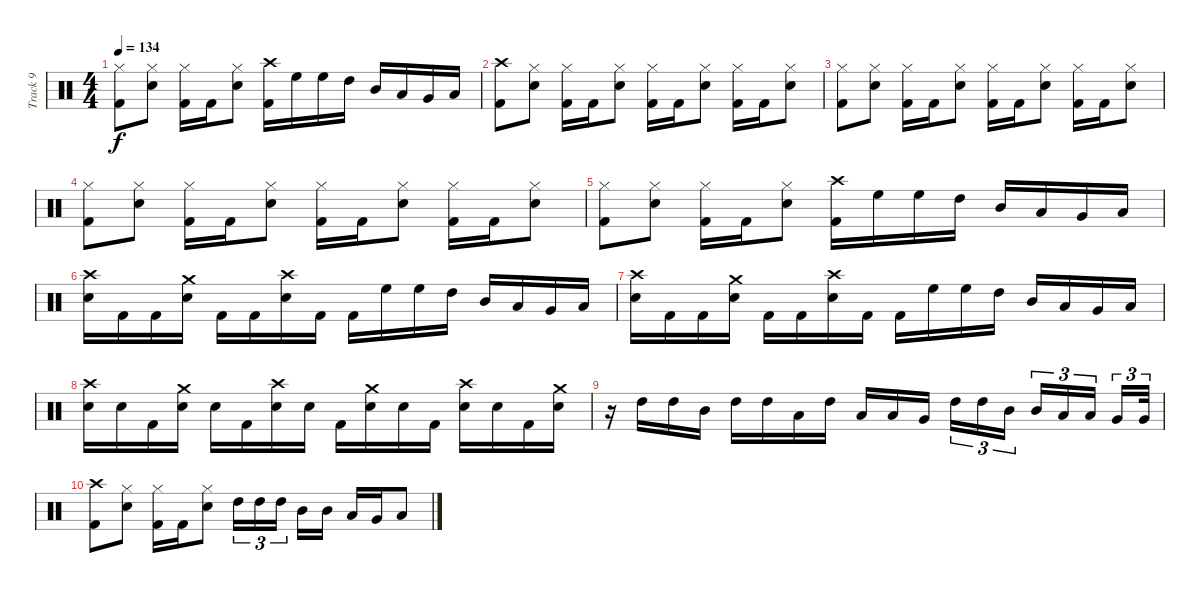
\track ("Track 9" "Track 9") {instrument percussion}
\staff {score}
\articulation defaults
\ts (4 4)
\tempo 134
\clef neutral
\ks c
("Hi-Hat (closed)" "Kick (hit) 2").8{dy f} ("Hi-Hat (closed)" "Snare (hit) 2").8 ("Hi-Hat (closed)" "Kick (hit) 2").16 "Kick (hit) 2".16 ("Hi-Hat (closed)" "Snare (hit) 2").8 ("Crash high (hit)" "Kick (hit) 2").16 "High Floor Tom (hit)".16 "High Floor Tom (hit)".16 "High Tom (hit)".16 "Mid Tom (hit)".16 "Low Tom (hit)".16 "Very Low Tom (hit)".16 "Low Floor Tom (hit)".16 |
("Crash high (hit)" "Kick (hit) 2").8 ("Hi-Hat (closed)" "Snare (hit) 2").8 ("Hi-Hat (closed)" "Kick (hit) 2").16 "Kick (hit) 2".16 ("Hi-Hat (closed)" "Snare (hit) 2").8 ("Hi-Hat (closed)" "Kick (hit) 2").16 "Kick (hit) 2".16 ("Hi-Hat (closed)" "Snare (hit) 2").8 ("Hi-Hat (closed)" "Kick (hit) 2").16 "Kick (hit) 2".16 ("Hi-Hat (closed)" "Snare (hit) 2").8 |
("Hi-Hat (closed)" "Kick (hit) 2").8 ("Hi-Hat (closed)" "Snare (hit) 2").8 ("Hi-Hat (closed)" "Kick (hit) 2").16 "Kick (hit) 2".16 ("Hi-Hat (closed)" "Snare (hit) 2").8 ("Hi-Hat (closed)" "Kick (hit) 2").16 "Kick (hit) 2".16 ("Hi-Hat (closed)" "Snare (hit) 2").8 ("Hi-Hat (closed)" "Kick (hit) 2").16 "Kick (hit) 2".16 ("Hi-Hat (closed)" "Snare (hit) 2").8 |
("Hi-Hat (closed)" "Kick (hit) 2").8 ("Hi-Hat (closed)" "Snare (hit) 2").8 ("Hi-Hat (closed)" "Kick (hit) 2").16 "Kick (hit) 2".16 ("Hi-Hat (closed)" "Snare (hit) 2").8 ("Hi-Hat (closed)" "Kick (hit) 2").16 "Kick (hit) 2".16 ("Hi-Hat (closed)" "Snare (hit) 2").8 ("Hi-Hat (closed)" "Kick (hit) 2").16 "Kick (hit) 2".16 ("Hi-Hat (closed)" "Snare (hit) 2").8 |
("Hi-Hat (closed)" "Kick (hit) 2").8 ("Hi-Hat (closed)" "Snare (hit) 2").8 ("Hi-Hat (closed)" "Kick (hit) 2").16 "Kick (hit) 2".16 ("Hi-Hat (closed)" "Snare (hit) 2").8 ("Crash high (hit)" "Kick (hit) 2").16 "High Floor Tom (hit)".16 "High Floor Tom (hit)".16 "High Tom (hit)".16 "Mid Tom (hit)".16 "Low Tom (hit)".16 "Very Low Tom (hit)".16 "Low Floor Tom (hit)".16 |
("Crash high (hit)" "Snare (hit) 2").16 "Kick (hit) 2".16 "Kick (hit) 2".16 ("Crash medium (hit)" "Snare (hit) 2").16 "Kick (hit) 2".16 "Kick (hit) 2".16 ("Crash high (hit)" "Snare (hit) 2").16 "Kick (hit) 2".16 "Kick (hit) 2".16 "High Floor Tom (hit)".16 "High Floor Tom (hit)".16 "High Tom (hit)".16 "Mid Tom (hit)".16 "Low Tom (hit)".16 "Very Low Tom (hit)".16 "Low Floor Tom (hit)".16 |
("Crash high (hit)" "Snare (hit) 2").16 "Kick (hit) 2".16 "Kick (hit) 2".16 ("Crash medium (hit)" "Snare (hit) 2").16 "Kick (hit) 2".16 "Kick (hit) 2".16 ("Crash high (hit)" "Snare (hit) 2").16 "Kick (hit) 2".16 "Kick (hit) 2".16 "High Floor Tom (hit)".16 "High Floor Tom (hit)".16 "High Tom (hit)".16 "Mid Tom (hit)".16 "Low Tom (hit)".16 "Very Low Tom (hit)".16 "Low Floor Tom (hit)".16 |
("Crash high (hit)" "Snare (hit) 2").16 "Snare (hit) 2".16 "Kick (hit) 2".16 ("Crash medium (hit)" "Snare (hit) 2").16 "Snare (hit) 2".16 "Kick (hit) 2".16 ("Crash high (hit)" "Snare (hit) 2").16 "Snare (hit) 2".16 "Kick (hit) 2".16 ("Crash medium (hit)" "Snare (hit) 2").16 "Snare (hit) 2".16 "Kick (hit) 2".16 ("Crash high (hit)" "Snare (hit) 2").16 "Snare (hit) 2".16 "Kick (hit) 2".16 ("Crash medium (hit)" "Snare (hit) 2").16 |
r.16 "High Tom (hit)".16 "High Tom (hit)".16 "Mid Tom (hit)".16 "High Tom (hit)".16 "High Tom (hit)".16 "Low Tom (hit)".16 "High Tom (hit)".16 "Low Tom (hit)".16 "Low Tom (hit)".16 "Very Low Tom (hit)".16{beam splitsecondary} "High Tom (hit)".16{tu (3 2)} "High Tom (hit)".16{tu (3 2)} "Mid Tom (hit)".16{tu (3 2) beam splitsecondary} "Mid Tom (hit)".16{tu (3 2)} "Low Tom (hit)".16{tu (3 2)} "Low Tom (hit)".16{tu (3 2) beam splitsecondary} "Very Low Tom (hit)".16{tu (3 2)} "Very Low Tom (hit)".32{tu (3 2)} |
("Crash high (hit)" "Kick (hit) 2").8 ("Hi-Hat (closed)" "Snare (hit) 2").8 ("Hi-Hat (closed)" "Kick (hit) 2").16 "Kick (hit) 2".16 ("Hi-Hat (closed)" "Snare (hit) 2").8 "High Tom (hit)".16{tu (3 2)} "High Tom (hit)".16{tu (3 2)} "High Tom (hit)".16{tu (3 2) beam splitsecondary} "Mid Tom (hit)".16 "Mid Tom (hit)".16 "Low Tom (hit)".16 "Very Low Tom (hit)".16 "Low Floor Tom (hit)".8
